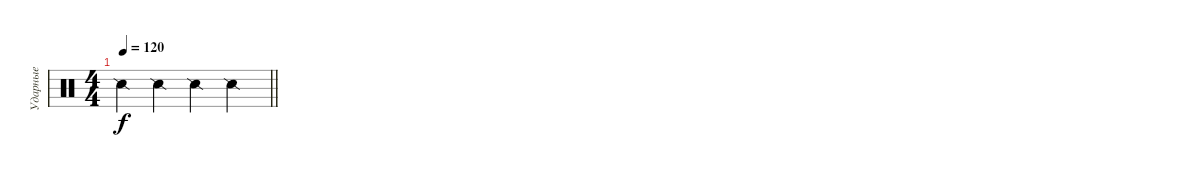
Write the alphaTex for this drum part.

\track ("Ударные" "Ударные") {mute instrument percussion}
\staff {score}
\articulation defaults
\ts (4 4)
\tempo 120
\clef neutral
\barLineRight lightlight
\ks c "Snare (side stick) 2".4{dy f} "Snare (side stick) 2".4 "Snare (side stick) 2".4 "Snare (side stick) 2".4
